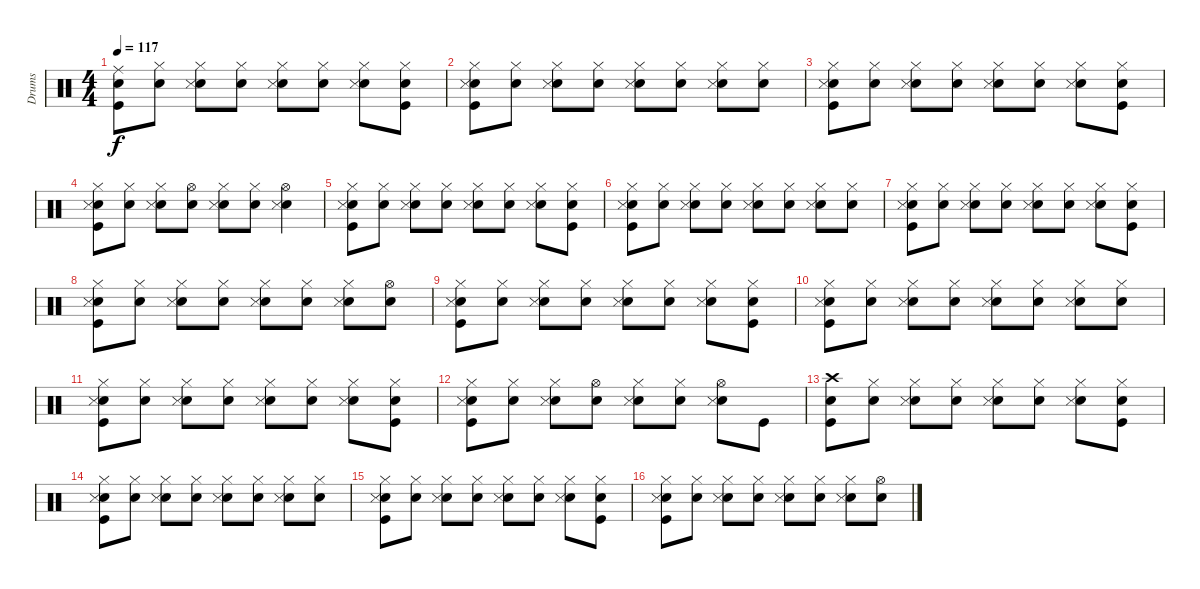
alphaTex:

\track ("Drums" "Drums") {instrument percussion}
\staff {score}
\articulation defaults
\ts (4 4)
\tempo 117
\clef neutral
\ks c
("Snare (hit)" "Ride (middle)" "Kick (hit)").8{dy f} ("Snare (hit)" "Hi-Hat (closed)").8 ("Snare (hit)" "Snare (side stick) 3" "Hi-Hat (closed)").8 ("Snare (hit)" "Hi-Hat (closed)").8 ("Snare (hit)" "Snare (side stick) 3" "Hi-Hat (closed)").8 ("Snare (hit)" "Hi-Hat (closed)").8 ("Snare (hit)" "Snare (side stick) 3" "Hi-Hat (closed)").8 ("Snare (hit)" "Hi-Hat (closed)" "Kick (hit)").8 |
("Snare (hit)" "Kick (hit)" "Snare (side stick) 3" "Hi-Hat (closed)").8 ("Snare (hit)" "Hi-Hat (closed)").8 ("Snare (hit)" "Snare (side stick) 3" "Hi-Hat (closed)").8 ("Snare (hit)" "Hi-Hat (closed)").8 ("Snare (hit)" "Snare (side stick) 3" "Hi-Hat (closed)").8 ("Snare (hit)" "Hi-Hat (closed)").8 ("Snare (hit)" "Snare (side stick) 3" "Hi-Hat (closed)").8 ("Snare (hit)" "Hi-Hat (closed)").8 |
("Snare (hit)" "Kick (hit)" "Snare (side stick) 3" "Hi-Hat (closed)").8 ("Snare (hit)" "Hi-Hat (closed)").8 ("Snare (hit)" "Snare (side stick) 3" "Hi-Hat (closed)").8 ("Snare (hit)" "Hi-Hat (closed)").8 ("Snare (hit)" "Snare (side stick) 3" "Hi-Hat (closed)").8 ("Snare (hit)" "Hi-Hat (closed)").8 ("Snare (hit)" "Snare (side stick) 3" "Hi-Hat (closed)").8 ("Snare (hit)" "Kick (hit)" "Hi-Hat (closed)").8 |
("Snare (hit)" "Kick (hit)" "Snare (side stick) 3" "Hi-Hat (closed)").8 ("Snare (hit)" "Hi-Hat (closed)").8 ("Snare (hit)" "Snare (side stick) 3" "Hi-Hat (closed)").8 ("Snare (hit)" "Hi-Hat (open)").8 ("Snare (hit)" "Snare (side stick) 3" "Hi-Hat (closed)").8 ("Snare (hit)" "Hi-Hat (closed)").8 ("Snare (hit)" "Snare (side stick) 3" "Hi-Hat (open)").4 |
("Snare (hit)" "Kick (hit)" "Snare (side stick) 3" "Hi-Hat (closed)").8 ("Snare (hit)" "Hi-Hat (closed)").8 ("Snare (hit)" "Snare (side stick) 3" "Hi-Hat (closed)").8 ("Snare (hit)" "Hi-Hat (closed)").8 ("Snare (hit)" "Snare (side stick) 3" "Hi-Hat (closed)").8 ("Snare (hit)" "Hi-Hat (closed)").8 ("Snare (hit)" "Snare (side stick) 3" "Hi-Hat (closed)").8 ("Snare (hit)" "Kick (hit)" "Hi-Hat (closed)").8 |
("Snare (hit)" "Kick (hit)" "Snare (side stick) 3" "Hi-Hat (closed)").8 ("Snare (hit)" "Hi-Hat (closed)").8 ("Snare (hit)" "Snare (side stick) 3" "Hi-Hat (closed)").8 ("Snare (hit)" "Hi-Hat (closed)").8 ("Snare (hit)" "Snare (side stick) 3" "Hi-Hat (closed)").8 ("Snare (hit)" "Hi-Hat (closed)").8 ("Snare (hit)" "Snare (side stick) 3" "Hi-Hat (closed)").8 ("Snare (hit)" "Hi-Hat (closed)").8 |
("Snare (hit)" "Kick (hit)" "Snare (side stick) 3" "Hi-Hat (closed)").8 ("Snare (hit)" "Hi-Hat (closed)").8 ("Snare (hit)" "Snare (side stick) 3" "Hi-Hat (closed)").8 ("Snare (hit)" "Hi-Hat (closed)").8 ("Snare (hit)" "Snare (side stick) 3" "Hi-Hat (closed)").8 ("Snare (hit)" "Hi-Hat (closed)").8 ("Snare (hit)" "Snare (side stick) 3" "Hi-Hat (closed)").8 ("Snare (hit)" "Kick (hit)" "Hi-Hat (closed)").8 |
("Snare (hit)" "Kick (hit)" "Snare (side stick) 3" "Hi-Hat (closed)").8 ("Snare (hit)" "Hi-Hat (closed)").8 ("Snare (hit)" "Snare (side stick) 3" "Hi-Hat (closed)").8 ("Snare (hit)" "Hi-Hat (closed)").8 ("Snare (hit)" "Snare (side stick) 3" "Hi-Hat (closed)").8 ("Snare (hit)" "Hi-Hat (closed)").8 ("Snare (hit)" "Snare (side stick) 3" "Hi-Hat (closed)").8 ("Snare (hit)" "Hi-Hat (open)").8 |
("Snare (hit)" "Snare (side stick) 3" "Hi-Hat (closed)" "Kick (hit)").8 ("Snare (hit)" "Hi-Hat (closed)").8 ("Snare (hit)" "Snare (side stick) 3" "Hi-Hat (closed)").8 ("Snare (hit)" "Hi-Hat (closed)").8 ("Snare (hit)" "Snare (side stick) 3" "Hi-Hat (closed)").8 ("Snare (hit)" "Hi-Hat (closed)").8 ("Snare (hit)" "Snare (side stick) 3" "Hi-Hat (closed)").8 ("Snare (hit)" "Kick (hit)" "Hi-Hat (closed)").8 |
("Snare (hit)" "Kick (hit)" "Snare (side stick) 3" "Hi-Hat (closed)").8 ("Snare (hit)" "Hi-Hat (closed)").8 ("Snare (hit)" "Snare (side stick) 3" "Hi-Hat (closed)").8 ("Snare (hit)" "Hi-Hat (closed)").8 ("Snare (hit)" "Snare (side stick) 3" "Hi-Hat (closed)").8 ("Snare (hit)" "Hi-Hat (closed)").8 ("Snare (hit)" "Snare (side stick) 3" "Hi-Hat (closed)").8 ("Snare (hit)" "Hi-Hat (closed)").8 |
("Snare (hit)" "Kick (hit)" "Snare (side stick) 3" "Hi-Hat (closed)").8 ("Snare (hit)" "Hi-Hat (closed)").8 ("Snare (hit)" "Snare (side stick) 3" "Hi-Hat (closed)").8 ("Snare (hit)" "Hi-Hat (closed)").8 ("Snare (hit)" "Snare (side stick) 3" "Hi-Hat (closed)").8 ("Snare (hit)" "Hi-Hat (closed)").8 ("Snare (hit)" "Snare (side stick) 3" "Hi-Hat (closed)").8 ("Snare (hit)" "Kick (hit)" "Hi-Hat (closed)").8 |
("Snare (hit)" "Kick (hit)" "Snare (side stick) 3" "Hi-Hat (closed)").8 ("Snare (hit)" "Hi-Hat (closed)").8 ("Snare (hit)" "Snare (side stick) 3" "Hi-Hat (closed)").8 ("Snare (hit)" "Hi-Hat (open)").8 ("Snare (hit)" "Snare (side stick) 3" "Hi-Hat (closed)").8 ("Snare (hit)" "Hi-Hat (closed)").8 ("Snare (hit)" "Snare (side stick) 3" "Hi-Hat (open)").8 "Kick (hit)".8 |
("Snare (hit)" "Kick (hit)" "Crash high (hit)").8 ("Snare (hit)" "Hi-Hat (closed)").8 ("Snare (hit)" "Snare (side stick) 3" "Hi-Hat (closed)").8 ("Snare (hit)" "Hi-Hat (closed)").8 ("Snare (hit)" "Snare (side stick) 3" "Hi-Hat (closed)").8 ("Snare (hit)" "Hi-Hat (closed)").8 ("Snare (hit)" "Snare (side stick) 3" "Hi-Hat (closed)").8 ("Snare (hit)" "Kick (hit)" "Hi-Hat (closed)").8 |
("Snare (hit)" "Kick (hit)" "Snare (side stick) 3" "Hi-Hat (closed)").8 ("Snare (hit)" "Hi-Hat (closed)").8 ("Snare (hit)" "Snare (side stick) 3" "Hi-Hat (closed)").8 ("Snare (hit)" "Hi-Hat (closed)").8 ("Snare (hit)" "Snare (side stick) 3" "Hi-Hat (closed)").8 ("Snare (hit)" "Hi-Hat (closed)").8 ("Snare (hit)" "Snare (side stick) 3" "Hi-Hat (closed)").8 ("Snare (hit)" "Hi-Hat (closed)").8 |
("Snare (hit)" "Snare (side stick) 3" "Hi-Hat (closed)" "Kick (hit)").8 ("Snare (hit)" "Hi-Hat (closed)").8 ("Snare (hit)" "Snare (side stick) 3" "Hi-Hat (closed)").8 ("Snare (hit)" "Hi-Hat (closed)").8 ("Snare (hit)" "Snare (side stick) 3" "Hi-Hat (closed)").8 ("Snare (hit)" "Hi-Hat (closed)").8 ("Snare (hit)" "Snare (side stick) 3" "Hi-Hat (closed)").8 ("Snare (hit)" "Hi-Hat (closed)" "Kick (hit)").8 |
("Snare (hit)" "Snare (side stick) 3" "Hi-Hat (closed)" "Kick (hit)").8 ("Snare (hit)" "Hi-Hat (closed)").8 ("Snare (hit)" "Snare (side stick) 3" "Hi-Hat (closed)").8 ("Snare (hit)" "Hi-Hat (closed)").8 ("Snare (hit)" "Snare (side stick) 3" "Hi-Hat (closed)").8 ("Snare (hit)" "Hi-Hat (closed)").8 ("Snare (hit)" "Snare (side stick) 3" "Hi-Hat (closed)").8 ("Snare (hit)" "Hi-Hat (open)").8
